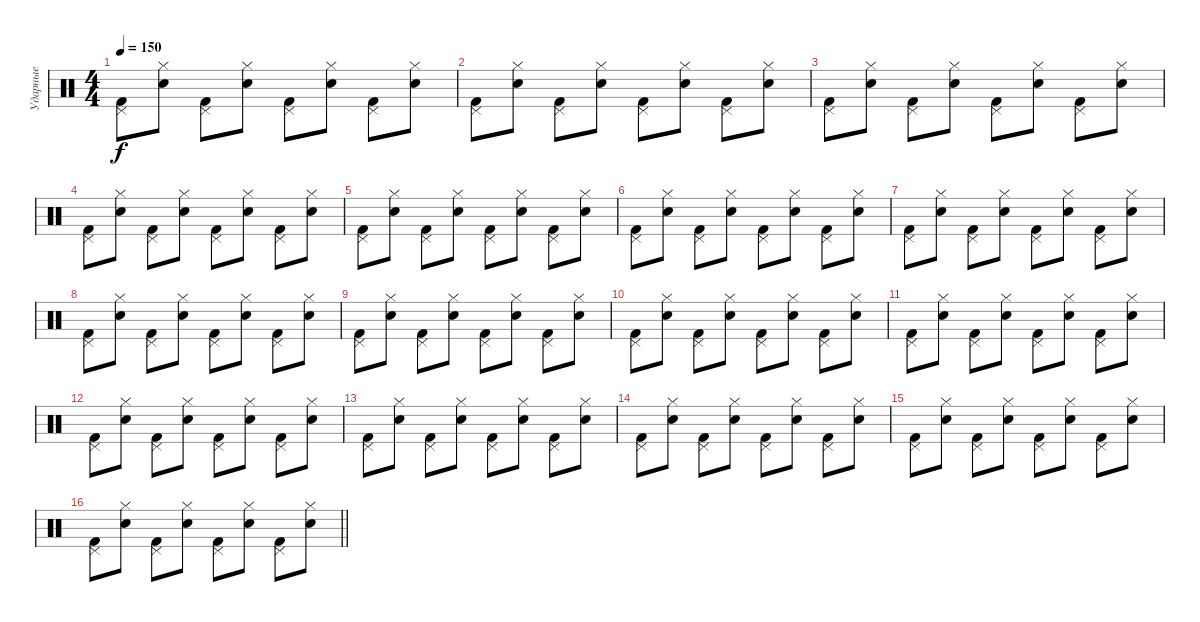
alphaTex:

\track ("Ударные" "Ударные") {instrument percussion}
\staff {score}
\articulation defaults
\ts (4 4)
\tempo 150
\clef neutral
\ks c
("Pedal Hi-Hat (hit)" "Kick (hit) 2").8{dy f} ("Hi-Hat (closed)" "Snare (hit) 2").8 ("Pedal Hi-Hat (hit)" "Kick (hit) 2").8 ("Hi-Hat (closed)" "Snare (hit) 2").8 ("Pedal Hi-Hat (hit)" "Kick (hit) 2").8 ("Hi-Hat (closed)" "Snare (hit) 2").8 ("Pedal Hi-Hat (hit)" "Kick (hit) 2").8 ("Hi-Hat (closed)" "Snare (hit) 2").8 |
("Pedal Hi-Hat (hit)" "Kick (hit) 2").8 ("Hi-Hat (closed)" "Snare (hit) 2").8 ("Pedal Hi-Hat (hit)" "Kick (hit) 2").8 ("Hi-Hat (closed)" "Snare (hit) 2").8 ("Pedal Hi-Hat (hit)" "Kick (hit) 2").8 ("Hi-Hat (closed)" "Snare (hit) 2").8 ("Pedal Hi-Hat (hit)" "Kick (hit) 2").8 ("Hi-Hat (closed)" "Snare (hit) 2").8 |
("Pedal Hi-Hat (hit)" "Kick (hit) 2").8 ("Hi-Hat (closed)" "Snare (hit) 2").8 ("Pedal Hi-Hat (hit)" "Kick (hit) 2").8 ("Hi-Hat (closed)" "Snare (hit) 2").8 ("Pedal Hi-Hat (hit)" "Kick (hit) 2").8 ("Hi-Hat (closed)" "Snare (hit) 2").8 ("Pedal Hi-Hat (hit)" "Kick (hit) 2").8 ("Hi-Hat (closed)" "Snare (hit) 2").8 |
("Pedal Hi-Hat (hit)" "Kick (hit) 2").8 ("Hi-Hat (closed)" "Snare (hit) 2").8 ("Pedal Hi-Hat (hit)" "Kick (hit) 2").8 ("Hi-Hat (closed)" "Snare (hit) 2").8 ("Pedal Hi-Hat (hit)" "Kick (hit) 2").8 ("Hi-Hat (closed)" "Snare (hit) 2").8 ("Pedal Hi-Hat (hit)" "Kick (hit) 2").8 ("Hi-Hat (closed)" "Snare (hit) 2").8 |
("Pedal Hi-Hat (hit)" "Kick (hit) 2").8 ("Hi-Hat (closed)" "Snare (hit) 2").8 ("Pedal Hi-Hat (hit)" "Kick (hit) 2").8 ("Hi-Hat (closed)" "Snare (hit) 2").8 ("Pedal Hi-Hat (hit)" "Kick (hit) 2").8 ("Hi-Hat (closed)" "Snare (hit) 2").8 ("Pedal Hi-Hat (hit)" "Kick (hit) 2").8 ("Hi-Hat (closed)" "Snare (hit) 2").8 |
("Pedal Hi-Hat (hit)" "Kick (hit) 2").8 ("Hi-Hat (closed)" "Snare (hit) 2").8 ("Pedal Hi-Hat (hit)" "Kick (hit) 2").8 ("Hi-Hat (closed)" "Snare (hit) 2").8 ("Pedal Hi-Hat (hit)" "Kick (hit) 2").8 ("Hi-Hat (closed)" "Snare (hit) 2").8 ("Pedal Hi-Hat (hit)" "Kick (hit) 2").8 ("Hi-Hat (closed)" "Snare (hit) 2").8 |
("Pedal Hi-Hat (hit)" "Kick (hit) 2").8 ("Hi-Hat (closed)" "Snare (hit) 2").8 ("Pedal Hi-Hat (hit)" "Kick (hit) 2").8 ("Hi-Hat (closed)" "Snare (hit) 2").8 ("Pedal Hi-Hat (hit)" "Kick (hit) 2").8 ("Hi-Hat (closed)" "Snare (hit) 2").8 ("Pedal Hi-Hat (hit)" "Kick (hit) 2").8 ("Hi-Hat (closed)" "Snare (hit) 2").8 |
("Pedal Hi-Hat (hit)" "Kick (hit) 2").8 ("Hi-Hat (closed)" "Snare (hit) 2").8 ("Pedal Hi-Hat (hit)" "Kick (hit) 2").8 ("Hi-Hat (closed)" "Snare (hit) 2").8 ("Pedal Hi-Hat (hit)" "Kick (hit) 2").8 ("Hi-Hat (closed)" "Snare (hit) 2").8 ("Pedal Hi-Hat (hit)" "Kick (hit) 2").8 ("Hi-Hat (closed)" "Snare (hit) 2").8 |
("Pedal Hi-Hat (hit)" "Kick (hit) 2").8 ("Hi-Hat (closed)" "Snare (hit) 2").8 ("Pedal Hi-Hat (hit)" "Kick (hit) 2").8 ("Hi-Hat (closed)" "Snare (hit) 2").8 ("Pedal Hi-Hat (hit)" "Kick (hit) 2").8 ("Hi-Hat (closed)" "Snare (hit) 2").8 ("Pedal Hi-Hat (hit)" "Kick (hit) 2").8 ("Hi-Hat (closed)" "Snare (hit) 2").8 |
("Pedal Hi-Hat (hit)" "Kick (hit) 2").8 ("Hi-Hat (closed)" "Snare (hit) 2").8 ("Pedal Hi-Hat (hit)" "Kick (hit) 2").8 ("Hi-Hat (closed)" "Snare (hit) 2").8 ("Pedal Hi-Hat (hit)" "Kick (hit) 2").8 ("Hi-Hat (closed)" "Snare (hit) 2").8 ("Pedal Hi-Hat (hit)" "Kick (hit) 2").8 ("Hi-Hat (closed)" "Snare (hit) 2").8 |
("Pedal Hi-Hat (hit)" "Kick (hit) 2").8 ("Hi-Hat (closed)" "Snare (hit) 2").8 ("Pedal Hi-Hat (hit)" "Kick (hit) 2").8 ("Hi-Hat (closed)" "Snare (hit) 2").8 ("Pedal Hi-Hat (hit)" "Kick (hit) 2").8 ("Hi-Hat (closed)" "Snare (hit) 2").8 ("Pedal Hi-Hat (hit)" "Kick (hit) 2").8 ("Hi-Hat (closed)" "Snare (hit) 2").8 |
("Pedal Hi-Hat (hit)" "Kick (hit) 2").8 ("Hi-Hat (closed)" "Snare (hit) 2").8 ("Pedal Hi-Hat (hit)" "Kick (hit) 2").8 ("Hi-Hat (closed)" "Snare (hit) 2").8 ("Pedal Hi-Hat (hit)" "Kick (hit) 2").8 ("Hi-Hat (closed)" "Snare (hit) 2").8 ("Pedal Hi-Hat (hit)" "Kick (hit) 2").8 ("Hi-Hat (closed)" "Snare (hit) 2").8 |
("Pedal Hi-Hat (hit)" "Kick (hit) 2").8 ("Hi-Hat (closed)" "Snare (hit) 2").8 ("Pedal Hi-Hat (hit)" "Kick (hit) 2").8 ("Hi-Hat (closed)" "Snare (hit) 2").8 ("Pedal Hi-Hat (hit)" "Kick (hit) 2").8 ("Hi-Hat (closed)" "Snare (hit) 2").8 ("Pedal Hi-Hat (hit)" "Kick (hit) 2").8 ("Hi-Hat (closed)" "Snare (hit) 2").8 |
("Pedal Hi-Hat (hit)" "Kick (hit) 2").8 ("Hi-Hat (closed)" "Snare (hit) 2").8 ("Pedal Hi-Hat (hit)" "Kick (hit) 2").8 ("Hi-Hat (closed)" "Snare (hit) 2").8 ("Pedal Hi-Hat (hit)" "Kick (hit) 2").8 ("Hi-Hat (closed)" "Snare (hit) 2").8 ("Pedal Hi-Hat (hit)" "Kick (hit) 2").8 ("Hi-Hat (closed)" "Snare (hit) 2").8 |
("Pedal Hi-Hat (hit)" "Kick (hit) 2").8 ("Hi-Hat (closed)" "Snare (hit) 2").8 ("Pedal Hi-Hat (hit)" "Kick (hit) 2").8 ("Hi-Hat (closed)" "Snare (hit) 2").8 ("Pedal Hi-Hat (hit)" "Kick (hit) 2").8 ("Hi-Hat (closed)" "Snare (hit) 2").8 ("Pedal Hi-Hat (hit)" "Kick (hit) 2").8 ("Hi-Hat (closed)" "Snare (hit) 2").8 |
\barLineRight lightlight
("Pedal Hi-Hat (hit)" "Kick (hit) 2").8 ("Hi-Hat (closed)" "Snare (hit) 2").8 ("Pedal Hi-Hat (hit)" "Kick (hit) 2").8 ("Hi-Hat (closed)" "Snare (hit) 2").8 ("Pedal Hi-Hat (hit)" "Kick (hit) 2").8 ("Hi-Hat (closed)" "Snare (hit) 2").8 ("Pedal Hi-Hat (hit)" "Kick (hit) 2").8 ("Hi-Hat (closed)" "Snare (hit) 2").8
